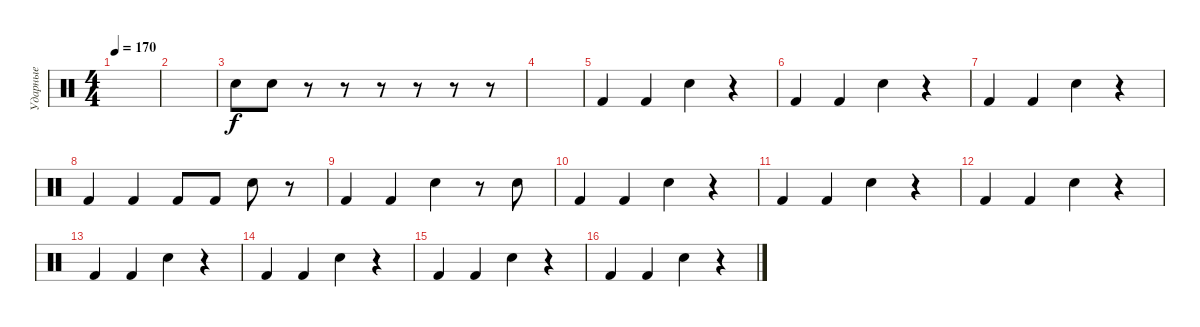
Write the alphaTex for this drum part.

\track ("Ударные" "Ударные") {instrument percussion}
\staff {score}
\articulation defaults
\ts (4 4)
\tempo 170
\clef neutral
\ks c
|
|
"Snare (hit) 2".8 "Snare (hit) 2".8 r.8 r.8 r.8 r.8 r.8 r.8 |
|
"Kick (hit) 2".4 "Kick (hit) 2".4 "Snare (hit) 2".4 r.4 |
"Kick (hit) 2".4 "Kick (hit) 2".4 "Snare (hit) 2".4 r.4 |
"Kick (hit) 2".4 "Kick (hit) 2".4 "Snare (hit) 2".4 r.4 |
"Kick (hit) 2".4 "Kick (hit) 2".4 "Kick (hit) 2".8 "Kick (hit) 2".8 "Snare (hit) 2".8 r.8 |
"Kick (hit) 2".4 "Kick (hit) 2".4 "Snare (hit) 2".4 r.8 "Snare (hit) 2".8 |
"Kick (hit) 2".4 "Kick (hit) 2".4 "Snare (hit) 2".4 r.4 |
"Kick (hit) 2".4 "Kick (hit) 2".4 "Snare (hit) 2".4 r.4 |
"Kick (hit) 2".4 "Kick (hit) 2".4 "Snare (hit) 2".4 r.4 |
"Kick (hit) 2".4 "Kick (hit) 2".4 "Snare (hit) 2".4 r.4 |
"Kick (hit) 2".4 "Kick (hit) 2".4 "Snare (hit) 2".4 r.4 |
"Kick (hit) 2".4 "Kick (hit) 2".4 "Snare (hit) 2".4 r.4 |
"Kick (hit) 2".4 "Kick (hit) 2".4 "Snare (hit) 2".4 r.4
